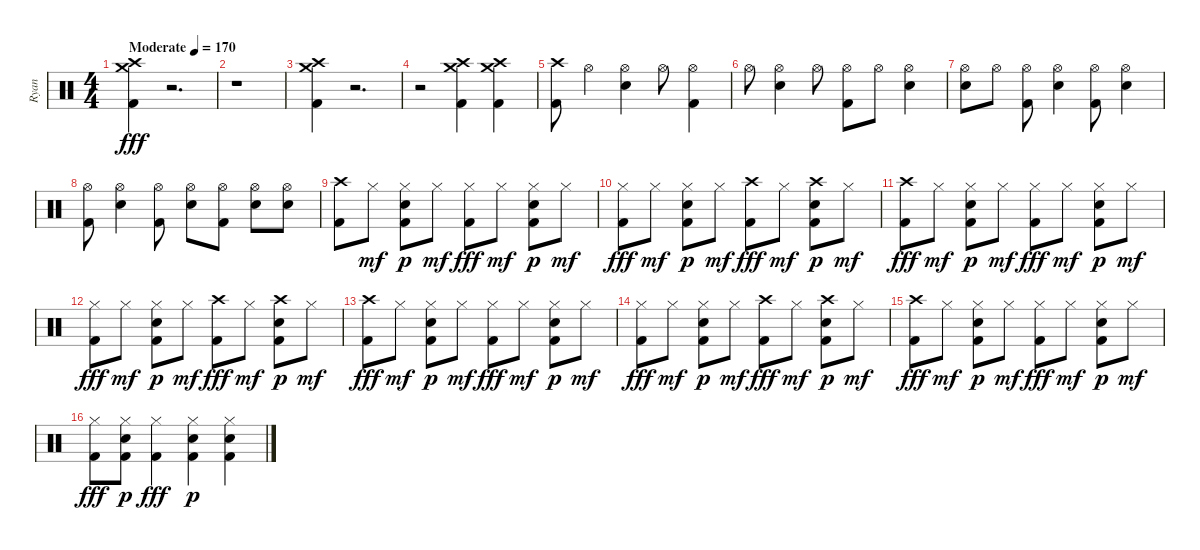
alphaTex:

\track ("Ryan" "Ryan") {instrument percussion}
\staff {score}
\articulation defaults
\ts (4 4)
\tempo (170 "Moderate")
\clef neutral
\ks c
("Kick (hit) 2" "Crash high (hit)" "Crash medium (hit)").4{dy fff} r.2{d} |
r.1 |
("Kick (hit) 2" "Crash high (hit)" "Crash medium (hit)").4 r.2{d} |
r.2 ("Kick (hit) 2" "Crash high (hit)" "Crash medium (hit)").4 ("Kick (hit) 2" "Crash high (hit)" "Crash medium (hit)").4 |
("Crash high (hit)" "Kick (hit) 2").8 "Hi-Hat (open)".4 ("Hi-Hat (open)" "Snare (hit) 2").4 "Hi-Hat (open)".8 ("Hi-Hat (open)" "Kick (hit) 2").4 |
"Hi-Hat (open)".8 ("Hi-Hat (open)" "Snare (hit) 2").4 "Hi-Hat (open)".8 ("Hi-Hat (open)" "Kick (hit) 2").8 "Hi-Hat (open)".8 ("Hi-Hat (open)" "Snare (hit) 2").4 |
("Hi-Hat (open)" "Snare (hit) 2").8 "Hi-Hat (open)".8 ("Hi-Hat (open)" "Kick (hit) 2").8 ("Hi-Hat (open)" "Snare (hit) 2").4 ("Hi-Hat (open)" "Kick (hit) 2").8 ("Hi-Hat (open)" "Snare (hit) 2").4 |
("Hi-Hat (open)" "Kick (hit) 2").8 ("Hi-Hat (open)" "Snare (hit) 2").4 ("Hi-Hat (open)" "Kick (hit) 2").8 ("Hi-Hat (open)" "Snare (hit) 2").8 ("Hi-Hat (open)" "Kick (hit) 2").8 ("Hi-Hat (open)" "Snare (hit) 2").8 ("Hi-Hat (open)" "Snare (hit) 2").8 |
("Kick (hit) 2" "Crash high (hit)").8 "Hi-Hat (closed)".8{dy mf} ("Snare (hit) 2" "Hi-Hat (closed)" "Kick (hit) 2").8{dy p} "Hi-Hat (closed)".8{dy mf} ("Kick (hit) 2" "Hi-Hat (closed)").8{dy fff} "Hi-Hat (closed)".8{dy mf} ("Snare (hit) 2" "Hi-Hat (closed)" "Kick (hit) 2").8{dy p} "Hi-Hat (closed)".8{dy mf} |
("Kick (hit) 2" "Hi-Hat (closed)").8{dy fff} "Hi-Hat (closed)".8{dy mf} ("Snare (hit) 2" "Hi-Hat (closed)" "Kick (hit) 2").8{dy p} "Hi-Hat (closed)".8{dy mf} ("Kick (hit) 2" "Crash high (hit)").8{dy fff} "Hi-Hat (closed)".8{dy mf} ("Snare (hit) 2" "Crash high (hit)" "Kick (hit) 2").8{dy p} "Hi-Hat (closed)".8{dy mf} |
("Kick (hit) 2" "Crash high (hit)").8{dy fff} "Hi-Hat (closed)".8{dy mf} ("Snare (hit) 2" "Hi-Hat (closed)" "Kick (hit) 2").8{dy p} "Hi-Hat (closed)".8{dy mf} ("Kick (hit) 2" "Hi-Hat (closed)").8{dy fff} "Hi-Hat (closed)".8{dy mf} ("Snare (hit) 2" "Hi-Hat (closed)" "Kick (hit) 2").8{dy p} "Hi-Hat (closed)".8{dy mf} |
("Kick (hit) 2" "Hi-Hat (closed)").8{dy fff} "Hi-Hat (closed)".8{dy mf} ("Snare (hit) 2" "Hi-Hat (closed)" "Kick (hit) 2").8{dy p} "Hi-Hat (closed)".8{dy mf} ("Kick (hit) 2" "Crash high (hit)").8{dy fff} "Hi-Hat (closed)".8{dy mf} ("Snare (hit) 2" "Crash high (hit)" "Kick (hit) 2").8{dy p} "Hi-Hat (closed)".8{dy mf} |
("Kick (hit) 2" "Crash high (hit)").8{dy fff} "Hi-Hat (closed)".8{dy mf} ("Snare (hit) 2" "Hi-Hat (closed)" "Kick (hit) 2").8{dy p} "Hi-Hat (closed)".8{dy mf} ("Kick (hit) 2" "Hi-Hat (closed)").8{dy fff} "Hi-Hat (closed)".8{dy mf} ("Snare (hit) 2" "Hi-Hat (closed)" "Kick (hit) 2").8{dy p} "Hi-Hat (closed)".8{dy mf} |
("Kick (hit) 2" "Hi-Hat (closed)").8{dy fff} "Hi-Hat (closed)".8{dy mf} ("Snare (hit) 2" "Hi-Hat (closed)" "Kick (hit) 2").8{dy p} "Hi-Hat (closed)".8{dy mf} ("Kick (hit) 2" "Crash high (hit)").8{dy fff} "Hi-Hat (closed)".8{dy mf} ("Snare (hit) 2" "Crash high (hit)" "Kick (hit) 2").8{dy p} "Hi-Hat (closed)".8{dy mf} |
("Kick (hit) 2" "Crash high (hit)").8{dy fff} "Hi-Hat (closed)".8{dy mf} ("Snare (hit) 2" "Hi-Hat (closed)" "Kick (hit) 2").8{dy p} "Hi-Hat (closed)".8{dy mf} ("Kick (hit) 2" "Hi-Hat (closed)").8{dy fff} "Hi-Hat (closed)".8{dy mf} ("Snare (hit) 2" "Hi-Hat (closed)" "Kick (hit) 2").8{dy p} "Hi-Hat (closed)".8{dy mf} |
("Kick (hit) 2" "Hi-Hat (closed)").8{dy fff} ("Snare (hit) 2" "Hi-Hat (closed)" "Kick (hit) 2").8{dy p} ("Kick (hit) 2" "Hi-Hat (closed)").4{dy fff} ("Snare (hit) 2" "Hi-Hat (closed)" "Kick (hit) 2").4{dy p} ("Snare (hit) 2" "Hi-Hat (closed)" "Kick (hit) 2").4
